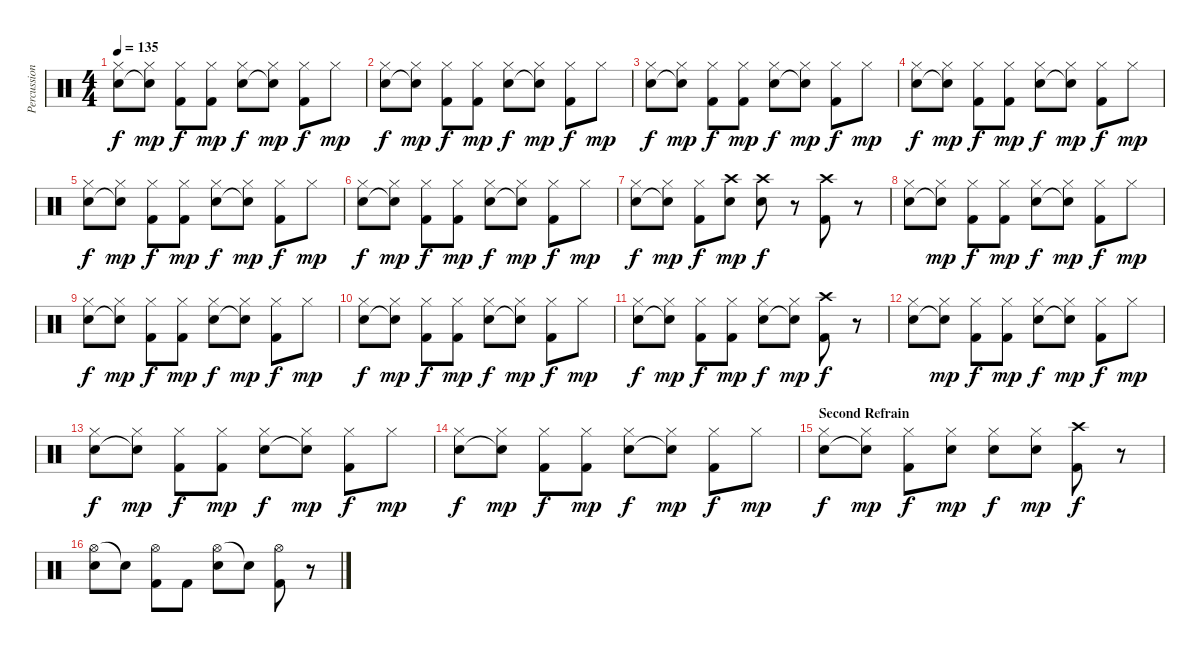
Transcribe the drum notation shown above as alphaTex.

\track ("Percussion" "Percussion") {instrument percussion}
\staff {score}
\articulation defaults
\ts (4 4)
\tempo 135
\clef neutral
\ks c
("Hi-Hat (closed)" "Electric Snare (hit)").8{dy f} ("Hi-Hat (closed)" "Electric Snare (hit)"{t}).8{dy mp} ("Hi-Hat (closed)" "Kick (hit) 2").8{dy f} ("Hi-Hat (closed)" "Kick (hit) 2").8{dy mp} ("Hi-Hat (closed)" "Electric Snare (hit)").8{dy f} ("Hi-Hat (closed)" "Electric Snare (hit)"{t}).8{dy mp} ("Hi-Hat (closed)" "Kick (hit) 2").8{dy f} "Hi-Hat (closed)".8{dy mp} |
("Hi-Hat (closed)" "Electric Snare (hit)").8{dy f} ("Hi-Hat (closed)" "Electric Snare (hit)"{t}).8{dy mp} ("Hi-Hat (closed)" "Kick (hit) 2").8{dy f} ("Hi-Hat (closed)" "Kick (hit) 2").8{dy mp} ("Hi-Hat (closed)" "Electric Snare (hit)").8{dy f} ("Hi-Hat (closed)" "Electric Snare (hit)"{t}).8{dy mp} ("Hi-Hat (closed)" "Kick (hit) 2").8{dy f} "Hi-Hat (closed)".8{dy mp} |
("Hi-Hat (closed)" "Electric Snare (hit)").8{dy f} ("Hi-Hat (closed)" "Electric Snare (hit)"{t}).8{dy mp} ("Hi-Hat (closed)" "Kick (hit) 2").8{dy f} ("Hi-Hat (closed)" "Kick (hit) 2").8{dy mp} ("Hi-Hat (closed)" "Electric Snare (hit)").8{dy f} ("Hi-Hat (closed)" "Electric Snare (hit)"{t}).8{dy mp} ("Hi-Hat (closed)" "Kick (hit) 2").8{dy f} "Hi-Hat (closed)".8{dy mp} |
("Hi-Hat (closed)" "Electric Snare (hit)").8{dy f} ("Hi-Hat (closed)" "Electric Snare (hit)"{t}).8{dy mp} ("Hi-Hat (closed)" "Kick (hit) 2").8{dy f} ("Hi-Hat (closed)" "Kick (hit) 2").8{dy mp} ("Hi-Hat (closed)" "Electric Snare (hit)").8{dy f} ("Hi-Hat (closed)" "Electric Snare (hit)"{t}).8{dy mp} ("Hi-Hat (closed)" "Kick (hit) 2").8{dy f} "Hi-Hat (closed)".8{dy mp} |
("Hi-Hat (closed)" "Electric Snare (hit)").8{dy f} ("Hi-Hat (closed)" "Electric Snare (hit)"{t}).8{dy mp} ("Hi-Hat (closed)" "Kick (hit) 2").8{dy f} ("Hi-Hat (closed)" "Kick (hit) 2").8{dy mp} ("Hi-Hat (closed)" "Electric Snare (hit)").8{dy f} ("Hi-Hat (closed)" "Electric Snare (hit)"{t}).8{dy mp} ("Hi-Hat (closed)" "Kick (hit) 2").8{dy f} "Hi-Hat (closed)".8{dy mp} |
("Hi-Hat (closed)" "Electric Snare (hit)").8{dy f} ("Hi-Hat (closed)" "Electric Snare (hit)"{t}).8{dy mp} ("Hi-Hat (closed)" "Kick (hit) 2").8{dy f} ("Hi-Hat (closed)" "Kick (hit) 2").8{dy mp} ("Hi-Hat (closed)" "Electric Snare (hit)").8{dy f} ("Hi-Hat (closed)" "Electric Snare (hit)"{t}).8{dy mp} ("Hi-Hat (closed)" "Kick (hit) 2").8{dy f} "Hi-Hat (closed)".8{dy mp} |
("Hi-Hat (closed)" "Electric Snare (hit)").8{dy f} ("Hi-Hat (closed)" "Electric Snare (hit)"{t}).8{dy mp} ("Hi-Hat (closed)" "Kick (hit) 2").8{dy f} ("Crash high (hit)" "Electric Snare (hit)").8{dy mp} ("Crash high (hit)" "Electric Snare (hit)").8{dy f} r.8 ("Crash high (hit)" "Kick (hit) 2").8 r.8 |
("Hi-Hat (closed)" "Electric Snare (hit)").8 ("Hi-Hat (closed)" "Electric Snare (hit)"{t}).8{dy mp} ("Hi-Hat (closed)" "Kick (hit) 2").8{dy f} ("Hi-Hat (closed)" "Kick (hit) 2").8{dy mp} ("Hi-Hat (closed)" "Electric Snare (hit)").8{dy f} ("Hi-Hat (closed)" "Electric Snare (hit)"{t}).8{dy mp} ("Hi-Hat (closed)" "Kick (hit) 2").8{dy f} "Hi-Hat (closed)".8{dy mp} |
("Hi-Hat (closed)" "Electric Snare (hit)").8{dy f} ("Hi-Hat (closed)" "Electric Snare (hit)"{t}).8{dy mp} ("Hi-Hat (closed)" "Kick (hit) 2").8{dy f} ("Hi-Hat (closed)" "Kick (hit) 2").8{dy mp} ("Hi-Hat (closed)" "Electric Snare (hit)").8{dy f} ("Hi-Hat (closed)" "Electric Snare (hit)"{t}).8{dy mp} ("Hi-Hat (closed)" "Kick (hit) 2").8{dy f} "Hi-Hat (closed)".8{dy mp} |
("Hi-Hat (closed)" "Electric Snare (hit)").8{dy f} ("Hi-Hat (closed)" "Electric Snare (hit)"{t}).8{dy mp} ("Hi-Hat (closed)" "Kick (hit) 2").8{dy f} ("Hi-Hat (closed)" "Kick (hit) 2").8{dy mp} ("Hi-Hat (closed)" "Electric Snare (hit)").8{dy f} ("Hi-Hat (closed)" "Electric Snare (hit)"{t}).8{dy mp} ("Hi-Hat (closed)" "Kick (hit) 2").8{dy f} "Hi-Hat (closed)".8{dy mp} |
("Hi-Hat (closed)" "Electric Snare (hit)").8{dy f} ("Hi-Hat (closed)" "Electric Snare (hit)"{t}).8{dy mp} ("Hi-Hat (closed)" "Kick (hit) 2").8{dy f} ("Hi-Hat (closed)" "Kick (hit) 2").8{dy mp} ("Hi-Hat (closed)" "Electric Snare (hit)").8{dy f} ("Hi-Hat (closed)" "Electric Snare (hit)"{t}).8{dy mp} ("Crash high (hit)" "Kick (hit) 2").8{dy f} r.8 |
("Hi-Hat (closed)" "Electric Snare (hit)").8 ("Hi-Hat (closed)" "Electric Snare (hit)"{t}).8{dy mp} ("Hi-Hat (closed)" "Kick (hit) 2").8{dy f} ("Hi-Hat (closed)" "Kick (hit) 2").8{dy mp} ("Hi-Hat (closed)" "Electric Snare (hit)").8{dy f} ("Hi-Hat (closed)" "Electric Snare (hit)"{t}).8{dy mp} ("Hi-Hat (closed)" "Kick (hit) 2").8{dy f} "Hi-Hat (closed)".8{dy mp} |
("Hi-Hat (closed)" "Electric Snare (hit)").8{dy f} ("Hi-Hat (closed)" "Electric Snare (hit)"{t}).8{dy mp} ("Hi-Hat (closed)" "Kick (hit) 2").8{dy f} ("Hi-Hat (closed)" "Kick (hit) 2").8{dy mp} ("Hi-Hat (closed)" "Electric Snare (hit)").8{dy f} ("Hi-Hat (closed)" "Electric Snare (hit)"{t}).8{dy mp} ("Hi-Hat (closed)" "Kick (hit) 2").8{dy f} "Hi-Hat (closed)".8{dy mp} |
("Hi-Hat (closed)" "Electric Snare (hit)").8{dy f} ("Hi-Hat (closed)" "Electric Snare (hit)"{t}).8{dy mp} ("Hi-Hat (closed)" "Kick (hit) 2").8{dy f} ("Hi-Hat (closed)" "Kick (hit) 2").8{dy mp} ("Hi-Hat (closed)" "Electric Snare (hit)").8{dy f} ("Hi-Hat (closed)" "Electric Snare (hit)"{t}).8{dy mp} ("Hi-Hat (closed)" "Kick (hit) 2").8{dy f} "Hi-Hat (closed)".8{dy mp} |
\section ("" "Second Refrain")
("Hi-Hat (closed)" "Electric Snare (hit)").8{dy f} ("Hi-Hat (closed)" "Electric Snare (hit)"{t}).8{dy mp} ("Hi-Hat (closed)" "Kick (hit) 2").8{dy f} ("Hi-Hat (closed)" "Electric Snare (hit)").8{dy mp} ("Hi-Hat (closed)" "Electric Snare (hit)").8{dy f} ("Hi-Hat (closed)" "Electric Snare (hit)").8{dy mp} ("Crash high (hit)" "Kick (hit) 2").8{dy f} r.8 |
("Hi-Hat (open)" "Electric Snare (hit)").8 "Electric Snare (hit)"{t}.8 ("Hi-Hat (open)" "Kick (hit) 2").8 "Kick (hit) 2".8 ("Hi-Hat (open)" "Electric Snare (hit)").8 "Electric Snare (hit)"{t}.8 ("Hi-Hat (open)" "Kick (hit) 2").8 r.8
